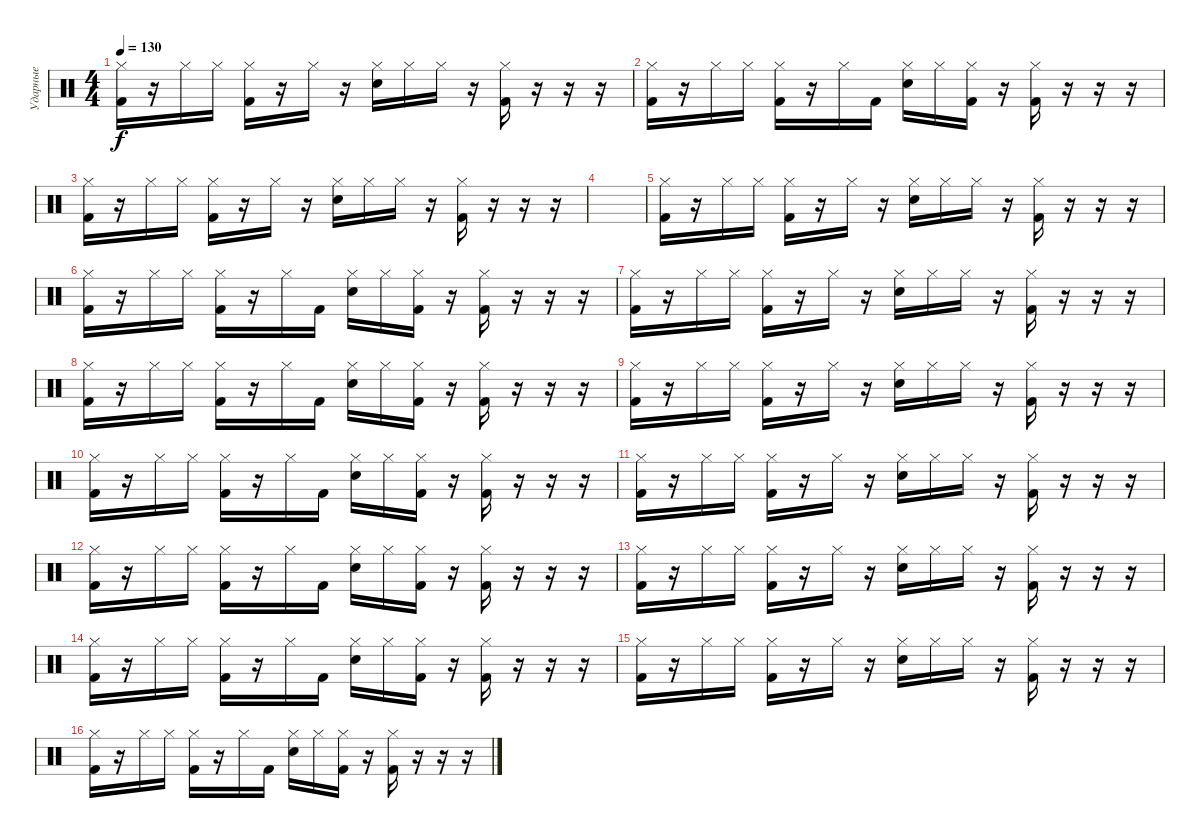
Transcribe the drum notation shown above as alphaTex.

\track ("Ударные" "Ударные") {instrument percussion}
\staff {score}
\articulation defaults
\ts (4 4)
\tempo 130
\clef neutral
\ks c
("Kick (hit) 2" "Hi-Hat (closed)").16{dy f} r.16 "Hi-Hat (closed)".16 "Hi-Hat (closed)".16 ("Kick (hit) 2" "Hi-Hat (closed)").16 r.16 "Hi-Hat (closed)".16 r.16 ("Snare (hit) 2" "Hi-Hat (closed)").16 "Hi-Hat (closed)".16 "Hi-Hat (closed)".16 r.16 ("Kick (hit) 2" "Hi-Hat (closed)").16 r.16 r.16 r.16 |
("Kick (hit) 2" "Hi-Hat (closed)").16 r.16 "Hi-Hat (closed)".16 "Hi-Hat (closed)".16 ("Kick (hit) 2" "Hi-Hat (closed)").16 r.16 "Hi-Hat (closed)".16 "Kick (hit) 2".16 ("Snare (hit) 2" "Hi-Hat (closed)").16 "Hi-Hat (closed)".16 ("Kick (hit) 2" "Hi-Hat (closed)").16 r.16 ("Kick (hit) 2" "Hi-Hat (closed)").16 r.16 r.16 r.16 |
("Kick (hit) 2" "Hi-Hat (closed)").16 r.16 "Hi-Hat (closed)".16 "Hi-Hat (closed)".16 ("Kick (hit) 2" "Hi-Hat (closed)").16 r.16 "Hi-Hat (closed)".16 r.16 ("Snare (hit) 2" "Hi-Hat (closed)").16 "Hi-Hat (closed)".16 "Hi-Hat (closed)".16 r.16 ("Kick (hit) 2" "Hi-Hat (closed)").16 r.16 r.16 r.16 |
|
("Kick (hit) 2" "Hi-Hat (closed)").16{volume 16} r.16 "Hi-Hat (closed)".16 "Hi-Hat (closed)".16 ("Kick (hit) 2" "Hi-Hat (closed)").16 r.16 "Hi-Hat (closed)".16 r.16 ("Snare (hit) 2" "Hi-Hat (closed)").16 "Hi-Hat (closed)".16 "Hi-Hat (closed)".16 r.16 ("Kick (hit) 2" "Hi-Hat (closed)").16 r.16 r.16 r.16 |
("Kick (hit) 2" "Hi-Hat (closed)").16 r.16 "Hi-Hat (closed)".16 "Hi-Hat (closed)".16 ("Kick (hit) 2" "Hi-Hat (closed)").16 r.16 "Hi-Hat (closed)".16 "Kick (hit) 2".16 ("Snare (hit) 2" "Hi-Hat (closed)").16 "Hi-Hat (closed)".16 ("Kick (hit) 2" "Hi-Hat (closed)").16 r.16 ("Kick (hit) 2" "Hi-Hat (closed)").16 r.16 r.16 r.16 |
("Hi-Hat (closed)" "Kick (hit) 2").16 r.16 "Hi-Hat (closed)".16 "Hi-Hat (closed)".16 ("Kick (hit) 2" "Hi-Hat (closed)").16 r.16 "Hi-Hat (closed)".16 r.16 ("Snare (hit) 2" "Hi-Hat (closed)").16 "Hi-Hat (closed)".16 "Hi-Hat (closed)".16 r.16 ("Kick (hit) 2" "Hi-Hat (closed)").16 r.16 r.16 r.16 |
("Kick (hit) 2" "Hi-Hat (closed)").16 r.16 "Hi-Hat (closed)".16 "Hi-Hat (closed)".16 ("Kick (hit) 2" "Hi-Hat (closed)").16 r.16 "Hi-Hat (closed)".16 "Kick (hit) 2".16 ("Snare (hit) 2" "Hi-Hat (closed)").16 "Hi-Hat (closed)".16 ("Kick (hit) 2" "Hi-Hat (closed)").16 r.16 ("Kick (hit) 2" "Hi-Hat (closed)").16 r.16 r.16 r.16 |
("Kick (hit) 2" "Hi-Hat (closed)").16{volume 16} r.16 "Hi-Hat (closed)".16 "Hi-Hat (closed)".16 ("Kick (hit) 2" "Hi-Hat (closed)").16 r.16 "Hi-Hat (closed)".16 r.16 ("Snare (hit) 2" "Hi-Hat (closed)").16 "Hi-Hat (closed)".16 "Hi-Hat (closed)".16 r.16 ("Kick (hit) 2" "Hi-Hat (closed)").16 r.16 r.16 r.16 |
("Kick (hit) 2" "Hi-Hat (closed)").16 r.16 "Hi-Hat (closed)".16 "Hi-Hat (closed)".16 ("Kick (hit) 2" "Hi-Hat (closed)").16 r.16 "Hi-Hat (closed)".16 "Kick (hit) 2".16 ("Snare (hit) 2" "Hi-Hat (closed)").16 "Hi-Hat (closed)".16 ("Kick (hit) 2" "Hi-Hat (closed)").16 r.16 ("Kick (hit) 2" "Hi-Hat (closed)").16 r.16 r.16 r.16 |
("Hi-Hat (closed)" "Kick (hit) 2").16 r.16 "Hi-Hat (closed)".16 "Hi-Hat (closed)".16 ("Kick (hit) 2" "Hi-Hat (closed)").16 r.16 "Hi-Hat (closed)".16 r.16 ("Snare (hit) 2" "Hi-Hat (closed)").16 "Hi-Hat (closed)".16 "Hi-Hat (closed)".16 r.16 ("Kick (hit) 2" "Hi-Hat (closed)").16 r.16 r.16 r.16 |
("Kick (hit) 2" "Hi-Hat (closed)").16 r.16 "Hi-Hat (closed)".16 "Hi-Hat (closed)".16 ("Kick (hit) 2" "Hi-Hat (closed)").16 r.16 "Hi-Hat (closed)".16 "Kick (hit) 2".16 ("Snare (hit) 2" "Hi-Hat (closed)").16 "Hi-Hat (closed)".16 ("Kick (hit) 2" "Hi-Hat (closed)").16 r.16 ("Kick (hit) 2" "Hi-Hat (closed)").16 r.16 r.16 r.16 |
("Kick (hit) 2" "Hi-Hat (closed)").16{volume 16} r.16 "Hi-Hat (closed)".16 "Hi-Hat (closed)".16 ("Kick (hit) 2" "Hi-Hat (closed)").16 r.16 "Hi-Hat (closed)".16 r.16 ("Snare (hit) 2" "Hi-Hat (closed)").16 "Hi-Hat (closed)".16 "Hi-Hat (closed)".16 r.16 ("Kick (hit) 2" "Hi-Hat (closed)").16 r.16 r.16 r.16 |
("Kick (hit) 2" "Hi-Hat (closed)").16 r.16 "Hi-Hat (closed)".16 "Hi-Hat (closed)".16 ("Kick (hit) 2" "Hi-Hat (closed)").16 r.16 "Hi-Hat (closed)".16 "Kick (hit) 2".16 ("Snare (hit) 2" "Hi-Hat (closed)").16 "Hi-Hat (closed)".16 ("Kick (hit) 2" "Hi-Hat (closed)").16 r.16 ("Kick (hit) 2" "Hi-Hat (closed)").16 r.16 r.16 r.16 |
("Hi-Hat (closed)" "Kick (hit) 2").16 r.16 "Hi-Hat (closed)".16 "Hi-Hat (closed)".16 ("Kick (hit) 2" "Hi-Hat (closed)").16 r.16 "Hi-Hat (closed)".16 r.16 ("Snare (hit) 2" "Hi-Hat (closed)").16 "Hi-Hat (closed)".16 "Hi-Hat (closed)".16 r.16 ("Kick (hit) 2" "Hi-Hat (closed)").16 r.16 r.16 r.16 |
("Kick (hit) 2" "Hi-Hat (closed)").16 r.16 "Hi-Hat (closed)".16 "Hi-Hat (closed)".16 ("Kick (hit) 2" "Hi-Hat (closed)").16 r.16 "Hi-Hat (closed)".16 "Kick (hit) 2".16 ("Snare (hit) 2" "Hi-Hat (closed)").16 "Hi-Hat (closed)".16 ("Kick (hit) 2" "Hi-Hat (closed)").16 r.16 ("Kick (hit) 2" "Hi-Hat (closed)").16 r.16 r.16 r.16
